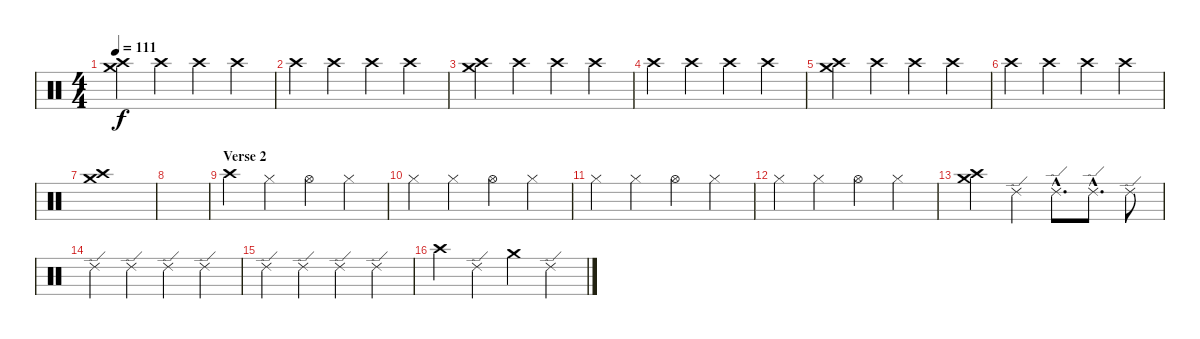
\track "" {instrument percussion}
\staff {score}
\articulation defaults
\ts (4 4)
\tempo 111
\clef neutral
\ks c
("Crash medium (hit)" "Crash high (hit)").4{dy f} "Crash high (hit)".4 "Crash high (hit)".4 "Crash high (hit)".4 |
"Crash high (hit)".4 "Crash high (hit)".4 "Crash high (hit)".4 "Crash high (hit)".4 |
("Crash medium (hit)" "Crash high (hit)").4 "Crash high (hit)".4 "Crash high (hit)".4 "Crash high (hit)".4 |
"Crash high (hit)".4 "Crash high (hit)".4 "Crash high (hit)".4 "Crash high (hit)".4 |
("Crash medium (hit)" "Crash high (hit)").4 "Crash high (hit)".4 "Crash high (hit)".4 "Crash high (hit)".4 |
"Crash high (hit)".4 "Crash high (hit)".4 "Crash high (hit)".4 "Crash high (hit)".4 |
("Crash medium (hit)" "Crash high (hit)").1 |
|
\section ("" "Verse 2")
"Crash high (hit)".4 "Hi-Hat (closed)".4 "Hi-Hat (open)".4 "Hi-Hat (closed)".4 |
"Hi-Hat (closed)".4 "Hi-Hat (closed)".4 "Hi-Hat (open)".4 "Hi-Hat (closed)".4 |
"Hi-Hat (closed)".4 "Hi-Hat (closed)".4 "Hi-Hat (open)".4 "Hi-Hat (closed)".4 |
"Hi-Hat (closed)".4 "Hi-Hat (closed)".4 "Hi-Hat (open)".4 "Hi-Hat (closed)".4 |
("Crash medium (hit)" "Crash high (hit)").4 "Ride (edge) 2".4 "Ride (edge) 2"{hac}.8{d} "Ride (edge) 2"{hac}.8{d} "Ride (edge) 2".8 |
"Ride (edge) 2".4 "Ride (edge) 2".4 "Ride (edge) 2".4 "Ride (edge) 2".4 |
"Ride (edge) 2".4 "Ride (edge) 2".4 "Ride (edge) 2".4 "Ride (edge) 2".4 |
"Crash high (hit)".4 "Ride (edge) 2".4 "Crash medium (hit)".4 "Ride (edge) 2".4
